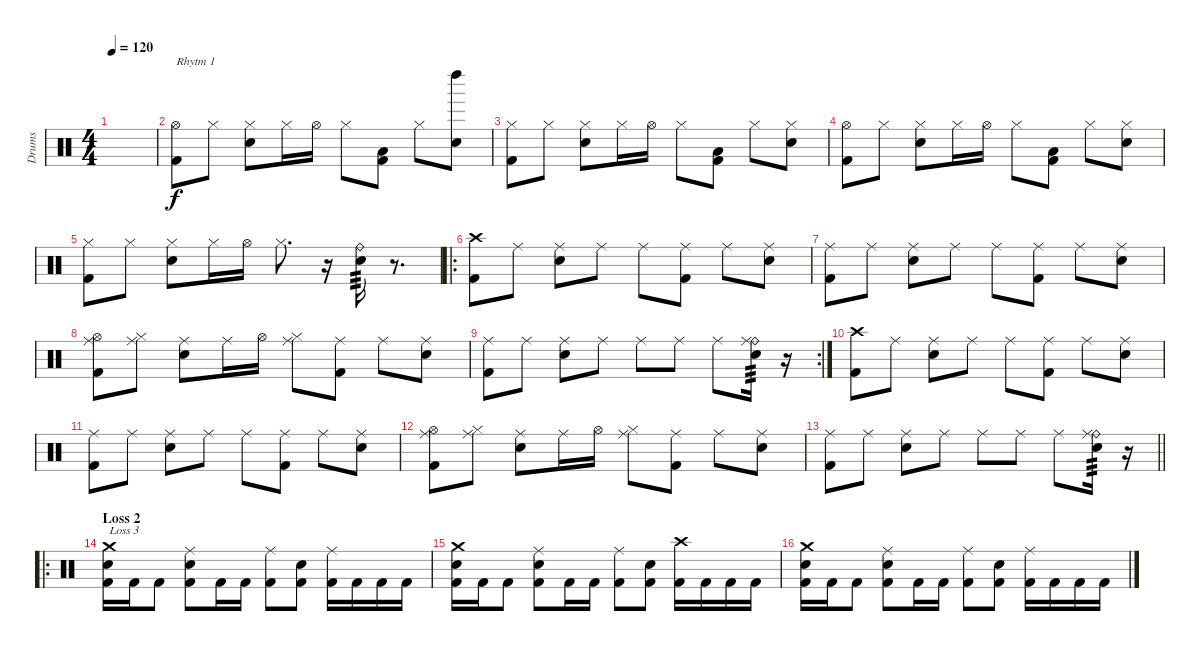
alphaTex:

\track ("Drums" "Drums") {instrument percussion}
\staff {score}
\articulation defaults
\ts (4 4)
\tempo 120
\clef neutral
\ks c
|
("Hi-Hat (open)" "Kick (hit) 2").8{txt "Rhytm 1" dy f} "Hi-Hat (closed)".8 ("Hi-Hat (closed)" "Electric Snare (hit)").8 "Hi-Hat (closed)".16 "Hi-Hat (open)".16 "Hi-Hat (closed)".8 ("Low Floor Tom (hit)" "Kick (hit) 2").8 "Hi-Hat (closed)".8 ("Left Maraca (hit)" "Electric Snare (hit)").8 |
("Hi-Hat (closed)" "Kick (hit) 2").8 "Hi-Hat (closed)".8 ("Hi-Hat (closed)" "Electric Snare (hit)").8 "Hi-Hat (closed)".16 "Hi-Hat (open)".16 "Hi-Hat (closed)".8 ("Low Floor Tom (hit)" "Kick (hit) 2").8 "Hi-Hat (closed)".8 ("Hi-Hat (closed)" "Electric Snare (hit)").8 |
("Hi-Hat (open)" "Kick (hit) 2").8 "Hi-Hat (closed)".8 ("Hi-Hat (closed)" "Electric Snare (hit)").8 "Hi-Hat (closed)".16 "Hi-Hat (open)".16 "Hi-Hat (closed)".8 ("Low Floor Tom (hit)" "Kick (hit) 2").8 "Hi-Hat (closed)".8 ("Hi-Hat (closed)" "Electric Snare (hit)").8 |
("Hi-Hat (closed)" "Kick (hit) 2").8 "Hi-Hat (closed)".8 ("Hi-Hat (closed)" "Electric Snare (hit)").8 "Hi-Hat (closed)".16 "Hi-Hat (open)".16 "Hi-Hat (closed)".8{d} r.16 ("Ride (bell)" "Electric Snare (hit)").16{tp 3} r.8{d} |
\ro
("Crash high (hit)" "Kick (hit) 2").8 "Ride (middle)".8 ("Ride (middle)" "Electric Snare (hit)").8 "Ride (middle)".8 "Ride (middle)".8 ("Ride (middle)" "Kick (hit) 2").8 "Ride (middle)".8 ("Ride (middle)" "Electric Snare (hit)").8 |
("Ride (middle)" "Kick (hit) 2").8 "Ride (middle)".8 ("Ride (middle)" "Electric Snare (hit)").8 "Ride (middle)".8 "Ride (middle)".8 ("Ride (middle)" "Kick (hit) 2").8 "Ride (middle)".8 ("Ride (middle)" "Electric Snare (hit)").8 |
("Hi-Hat (open)" "Ride (middle)" "Kick (hit) 2").8 ("Hi-Hat (closed)" "Ride (middle)").8 ("Ride (middle)" "Electric Snare (hit)").8 "Ride (middle)".16 "Hi-Hat (open)".16 ("Hi-Hat (closed)" "Ride (middle)").8 ("Ride (middle)" "Kick (hit) 2").8 "Ride (middle)".8 ("Ride (middle)" "Electric Snare (hit)").8 |
\rc 2
("Ride (middle)" "Kick (hit) 2").8 "Ride (middle)".8 ("Ride (middle)" "Electric Snare (hit)").8 "Ride (middle)".8 "Ride (middle)".8 "Ride (middle)".8 "Ride (middle)".8 ("Ride (bell)" "Ride (middle)" "Electric Snare (hit)").16{tp 3} r.16 |
("Crash high (hit)" "Kick (hit) 2").8 "Ride (middle)".8 ("Ride (middle)" "Electric Snare (hit)").8 "Ride (middle)".8 "Ride (middle)".8 ("Ride (middle)" "Kick (hit) 2").8 "Ride (middle)".8 ("Ride (middle)" "Electric Snare (hit)").8 |
("Ride (middle)" "Kick (hit) 2").8 "Ride (middle)".8 ("Ride (middle)" "Electric Snare (hit)").8 "Ride (middle)".8 "Ride (middle)".8 ("Ride (middle)" "Kick (hit) 2").8 "Ride (middle)".8 ("Ride (middle)" "Electric Snare (hit)").8 |
("Hi-Hat (open)" "Ride (middle)" "Kick (hit) 2").8 ("Hi-Hat (closed)" "Ride (middle)").8 ("Ride (middle)" "Electric Snare (hit)").8 "Ride (middle)".16 "Hi-Hat (open)".16 ("Hi-Hat (closed)" "Ride (middle)").8 ("Ride (middle)" "Kick (hit) 2").8 "Ride (middle)".8 ("Ride (middle)" "Electric Snare (hit)").8 |
\barLineRight lightlight
("Ride (middle)" "Kick (hit) 2").8 "Ride (middle)".8 ("Ride (middle)" "Electric Snare (hit)").8 "Ride (middle)".8 "Ride (middle)".8 "Ride (middle)".8 "Ride (middle)".8 ("Ride (bell)" "Ride (middle)" "Electric Snare (hit)").16{tp 3} r.16 |
\ro
\section ("" "Loss 2")
("Crash medium (hit)" "Electric Snare (hit)" "Kick (hit) 2").16{txt "Loss 3"} "Kick (hit) 2".16 "Kick (hit) 2".8 ("Ride (middle)" "Electric Snare (hit)" "Kick (hit) 2").8 "Kick (hit) 2".16 "Kick (hit) 2".16 ("Ride (middle)" "Kick (hit) 2").8 ("Electric Snare (hit)" "Kick (hit) 2").8 ("Ride (middle)" "Kick (hit) 2").16 "Kick (hit) 2".16 "Kick (hit) 2".16 "Kick (hit) 2".16 |
("Crash medium (hit)" "Electric Snare (hit)" "Kick (hit) 2").16 "Kick (hit) 2".16 "Kick (hit) 2".8 ("Ride (middle)" "Electric Snare (hit)" "Kick (hit) 2").8 "Kick (hit) 2".16 "Kick (hit) 2".16 ("Ride (middle)" "Kick (hit) 2").8 ("Electric Snare (hit)" "Kick (hit) 2").8 ("Crash high (hit)" "Kick (hit) 2").16 "Kick (hit) 2".16 "Kick (hit) 2".16 "Kick (hit) 2".16 |
("Crash medium (hit)" "Electric Snare (hit)" "Kick (hit) 2").16 "Kick (hit) 2".16 "Kick (hit) 2".8 ("Ride (middle)" "Electric Snare (hit)" "Kick (hit) 2").8 "Kick (hit) 2".16 "Kick (hit) 2".16 ("Ride (middle)" "Kick (hit) 2").8 ("Electric Snare (hit)" "Kick (hit) 2").8 ("Ride (middle)" "Kick (hit) 2").16 "Kick (hit) 2".16 "Kick (hit) 2".16 "Kick (hit) 2".16
